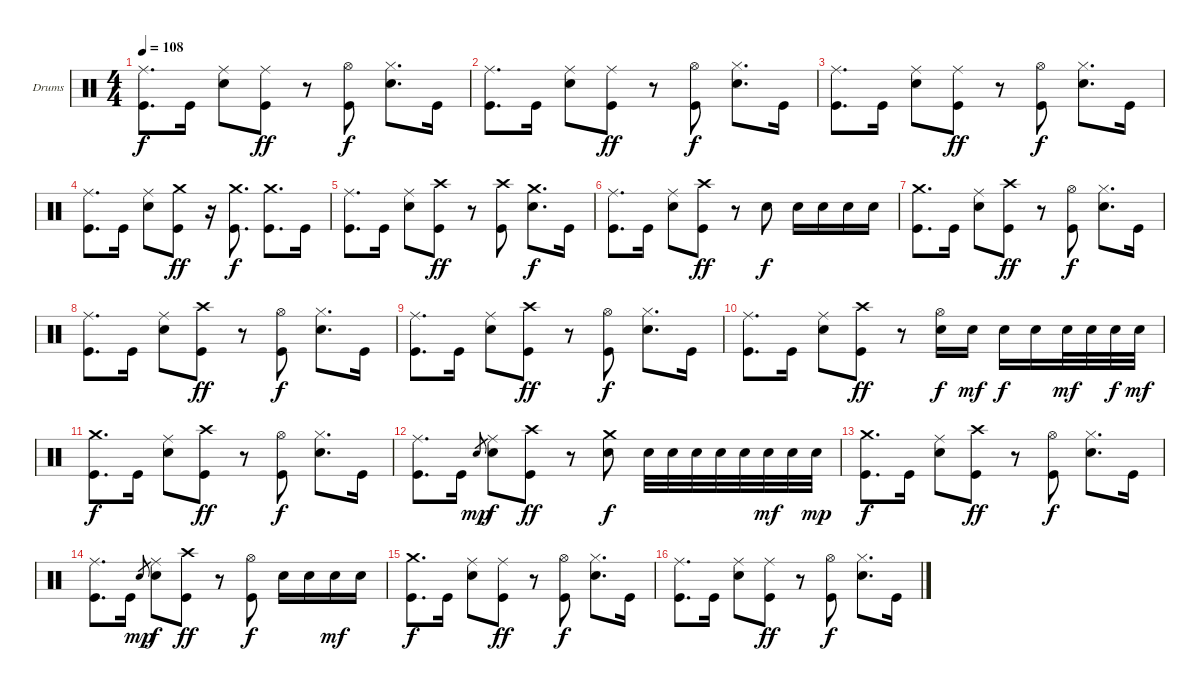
\bracketExtendMode groupsimilarinstruments
\firstSystemTrackNameOrientation horizontal
\otherSystemsTrackNameOrientation horizontal
\track ("Drumkit" "Drums") {instrument percussion}
\staff {score}
\articulation defaults
\ts (4 4)
\tempo 108
\clef neutral
\ks c
("Ride (middle)" "Kick (hit)").8{d dy f} "Kick (hit)".16 ("Ride (middle)" "Snare (hit) 2").8 ("Ride (middle)" "Kick (hit)").8{dy ff} r.8 ("Hi-Hat (open)" "Kick (hit)").8{dy f} ("Hi-Hat (closed)" "Snare (hit) 2").8{d} "Kick (hit)".16 |
("Ride (middle)" "Kick (hit)").8{d} "Kick (hit)".16 ("Ride (middle)" "Snare (hit) 2").8 ("Ride (middle)" "Kick (hit)").8{dy ff} r.8 ("Hi-Hat (open)" "Kick (hit)").8{dy f} ("Hi-Hat (closed)" "Snare (hit) 2").8{d} "Kick (hit)".16 |
("Ride (middle)" "Kick (hit)").8{d} "Kick (hit)".16 ("Ride (middle)" "Snare (hit) 2").8 ("Ride (middle)" "Kick (hit)").8{dy ff} r.8 ("Hi-Hat (open)" "Kick (hit)").8{dy f} ("Hi-Hat (closed)" "Snare (hit) 2").8{d} "Kick (hit)".16 |
("Ride (middle)" "Kick (hit)").8{d} "Kick (hit)".16 ("Ride (middle)" "Snare (hit) 2").8 ("Crash medium (hit)" "Kick (hit)").8{dy ff} r.16 ("Crash medium (hit)" "Kick (hit)").8{d dy f} ("Crash medium (hit)" "Kick (hit)").8{d} "Kick (hit)".16 |
("Ride (middle)" "Kick (hit)").8{d} "Kick (hit)".16 ("Ride (middle)" "Snare (hit) 2").8 ("Crash high (hit)" "Kick (hit)").8{dy ff} r.8 ("Crash high (hit)" "Kick (hit)").8 ("Crash medium (hit)" "Snare (hit) 2").8{d dy f} "Kick (hit)".16 |
("Ride (middle)" "Kick (hit)").8{d} "Kick (hit)".16 ("Ride (middle)" "Snare (hit) 2").8 ("Crash high (hit)" "Kick (hit)").8{dy ff} r.8 "Snare (hit) 2".8{dy f} "Snare (hit) 2".16 "Snare (hit) 2".16 "Snare (hit) 2".16 "Snare (hit) 2".16 |
("Crash medium (hit)" "Kick (hit)").8{d} "Kick (hit)".16 ("Ride (middle)" "Snare (hit) 2").8 ("Crash high (hit)" "Kick (hit)").8{dy ff} r.8 ("Hi-Hat (open)" "Kick (hit)").8{dy f} ("Hi-Hat (closed)" "Snare (hit) 2").8{d} "Kick (hit)".16 |
("Ride (middle)" "Kick (hit)").8{d} "Kick (hit)".16 ("Ride (middle)" "Snare (hit) 2").8 ("Crash high (hit)" "Kick (hit)").8{dy ff} r.8 ("Hi-Hat (open)" "Kick (hit)").8{dy f} ("Hi-Hat (closed)" "Snare (hit) 2").8{d} "Kick (hit)".16 |
("Ride (middle)" "Kick (hit)").8{d} "Kick (hit)".16 ("Ride (middle)" "Snare (hit) 2").8 ("Crash high (hit)" "Kick (hit)").8{dy ff} r.8 ("Hi-Hat (open)" "Kick (hit)").8{dy f} ("Hi-Hat (closed)" "Snare (hit) 2").8{d} "Kick (hit)".16 |
("Ride (middle)" "Kick (hit)").8{d} "Kick (hit)".16 ("Ride (middle)" "Snare (hit) 2").8 ("Crash high (hit)" "Kick (hit)").8{dy ff} r.8 ("Hi-Hat (open)" "Snare (hit) 2").16{dy f} "Snare (hit) 2".16{dy mf} "Snare (hit) 2".16{dy f} "Snare (hit) 2".16 "Snare (hit) 2".32{dy mf} "Snare (hit) 2".32 "Snare (hit) 2".32{dy f} "Snare (hit) 2".32{dy mf} |
("Crash medium (hit)" "Kick (hit)").8{d dy f} "Kick (hit)".16 ("Ride (middle)" "Snare (hit) 2").8 ("Crash high (hit)" "Kick (hit)").8{dy ff} r.8 ("Hi-Hat (open)" "Kick (hit)").8{dy f} ("Hi-Hat (closed)" "Snare (hit) 2").8{d} "Kick (hit)".16 |
("Ride (middle)" "Kick (hit)").8{d} "Kick (hit)".16 "Snare (hit) 2".8{gr dy mp} ("Ride (middle)" "Snare (hit) 2").8{dy f} ("Crash high (hit)" "Kick (hit)").8{dy ff} r.8 ("Crash medium (hit)" "Snare (hit) 2").8{dy f} "Snare (hit) 2".32 "Snare (hit) 2".32 "Snare (hit) 2".32 "Snare (hit) 2".32 "Snare (hit) 2".32 "Snare (hit) 2".32{dy mf} "Snare (hit) 2".32 "Snare (hit) 2".32{dy mp} |
("Crash medium (hit)" "Kick (hit)").8{d dy f} "Kick (hit)".16 ("Ride (middle)" "Snare (hit) 2").8 ("Crash high (hit)" "Kick (hit)").8{dy ff} r.8 ("Hi-Hat (open)" "Kick (hit)").8{dy f} ("Hi-Hat (closed)" "Snare (hit) 2").8{d} "Kick (hit)".16 |
("Ride (middle)" "Kick (hit)").8{d} "Kick (hit)".16 "Snare (hit) 2".8{gr dy mp} ("Ride (middle)" "Snare (hit) 2").8{dy f} ("Crash high (hit)" "Kick (hit)").8{dy ff} r.8 ("Hi-Hat (open)" "Kick (hit)").8{dy f} "Snare (hit) 2".16 "Snare (hit) 2".16 "Snare (hit) 2".16{dy mf} "Snare (hit) 2".16 |
("Crash medium (hit)" "Kick (hit)").8{d dy f} "Kick (hit)".16 ("Ride (middle)" "Snare (hit) 2").8 ("Ride (middle)" "Kick (hit)").8{dy ff} r.8 ("Hi-Hat (open)" "Kick (hit)").8{dy f} ("Hi-Hat (closed)" "Snare (hit) 2").8{d} "Kick (hit)".16 |
("Ride (middle)" "Kick (hit)").8{d} "Kick (hit)".16 ("Ride (middle)" "Snare (hit) 2").8 ("Ride (middle)" "Kick (hit)").8{dy ff} r.8 ("Hi-Hat (open)" "Kick (hit)").8{dy f} ("Hi-Hat (closed)" "Snare (hit) 2").8{d} "Kick (hit)".16
